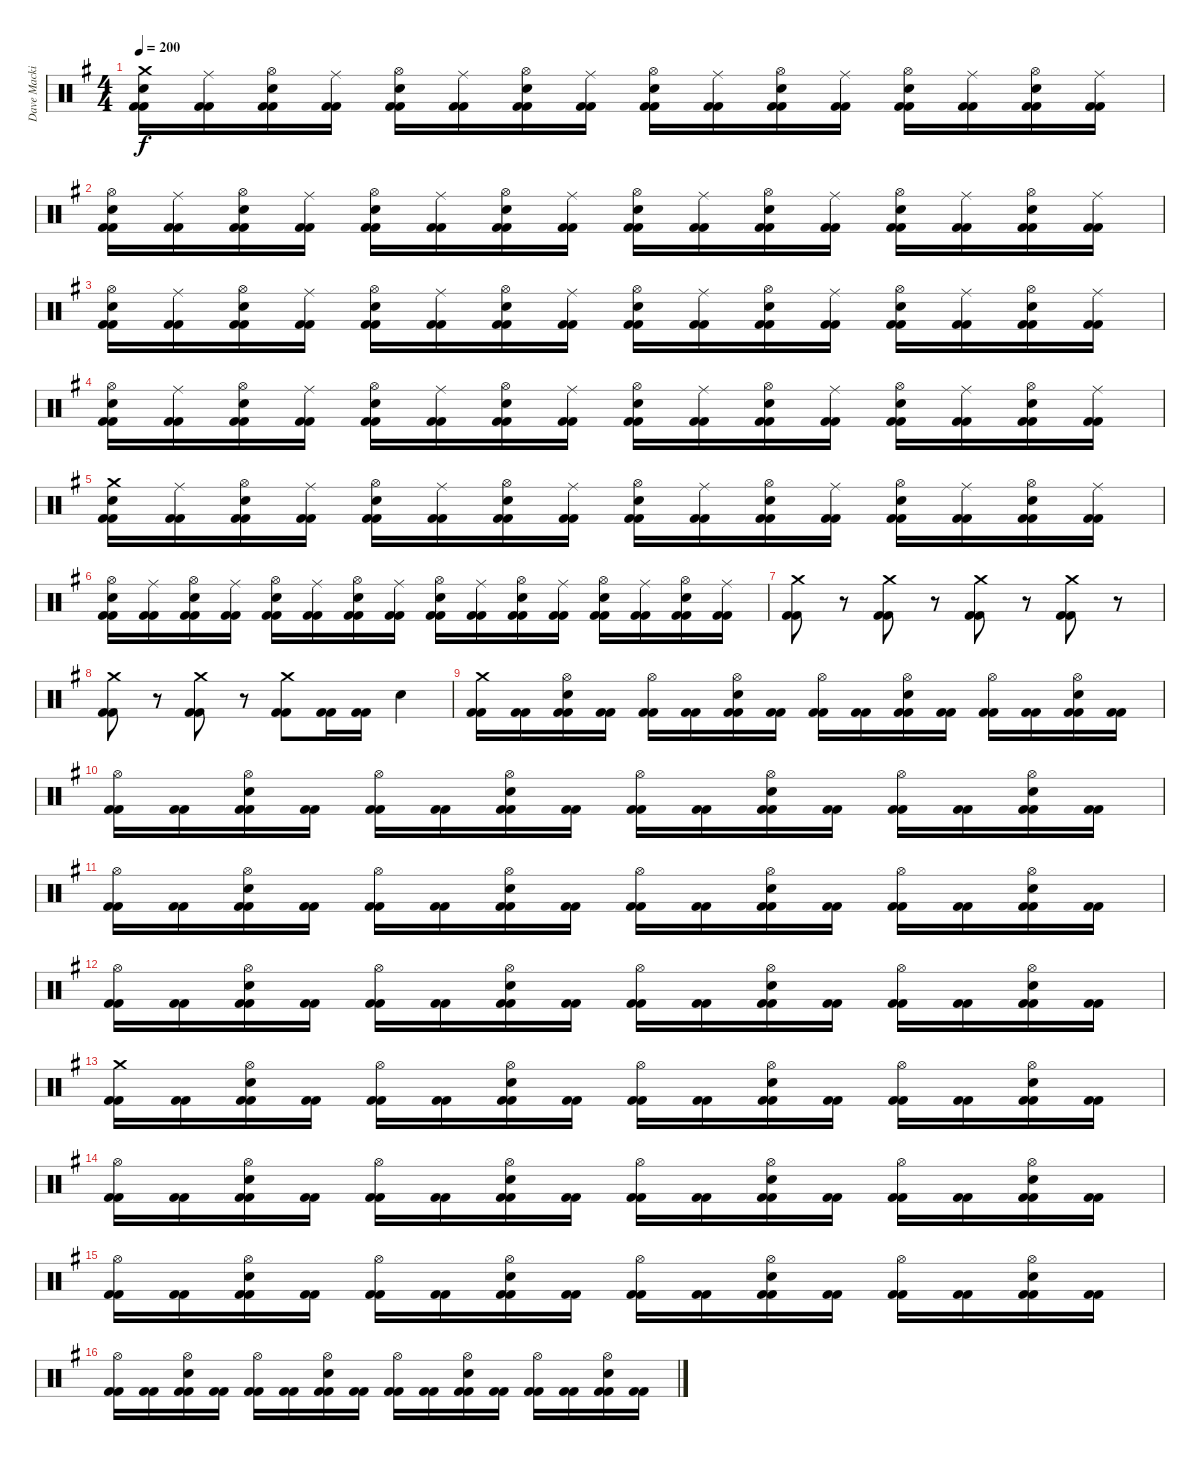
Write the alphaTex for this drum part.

\track ("Dave Mackintosh" "Dave Macki") {instrument percussion}
\staff {score}
\articulation defaults
\ts (4 4)
\tempo 200
\clef neutral
\ks g
("Crash medium (hit)" "Electric Snare (hit)" "Kick (hit) 2" "Kick (hit) 2").16{dy f} ("Ride (middle)" "Kick (hit) 2" "Kick (hit) 2").16 ("Hi-Hat (open)" "Electric Snare (hit)" "Kick (hit) 2" "Kick (hit) 2").16 ("Ride (middle)" "Kick (hit) 2" "Kick (hit) 2").16 ("Hi-Hat (open)" "Electric Snare (hit)" "Kick (hit) 2" "Kick (hit) 2").16 ("Ride (middle)" "Kick (hit) 2" "Kick (hit) 2").16 ("Hi-Hat (open)" "Electric Snare (hit)" "Kick (hit) 2" "Kick (hit) 2").16 ("Ride (middle)" "Kick (hit) 2" "Kick (hit) 2").16 ("Hi-Hat (open)" "Electric Snare (hit)" "Kick (hit) 2" "Kick (hit) 2").16 ("Ride (middle)" "Kick (hit) 2" "Kick (hit) 2").16 ("Hi-Hat (open)" "Electric Snare (hit)" "Kick (hit) 2" "Kick (hit) 2").16 ("Ride (middle)" "Kick (hit) 2" "Kick (hit) 2").16 ("Hi-Hat (open)" "Electric Snare (hit)" "Kick (hit) 2" "Kick (hit) 2").16 ("Ride (middle)" "Kick (hit) 2" "Kick (hit) 2").16 ("Hi-Hat (open)" "Electric Snare (hit)" "Kick (hit) 2" "Kick (hit) 2").16 ("Ride (middle)" "Kick (hit) 2" "Kick (hit) 2").16 |
("Hi-Hat (open)" "Electric Snare (hit)" "Kick (hit) 2" "Kick (hit) 2").16 ("Ride (middle)" "Kick (hit) 2" "Kick (hit) 2").16 ("Hi-Hat (open)" "Electric Snare (hit)" "Kick (hit) 2" "Kick (hit) 2").16 ("Ride (middle)" "Kick (hit) 2" "Kick (hit) 2").16 ("Hi-Hat (open)" "Electric Snare (hit)" "Kick (hit) 2" "Kick (hit) 2").16 ("Ride (middle)" "Kick (hit) 2" "Kick (hit) 2").16 ("Hi-Hat (open)" "Electric Snare (hit)" "Kick (hit) 2" "Kick (hit) 2").16 ("Ride (middle)" "Kick (hit) 2" "Kick (hit) 2").16 ("Hi-Hat (open)" "Electric Snare (hit)" "Kick (hit) 2" "Kick (hit) 2").16 ("Ride (middle)" "Kick (hit) 2" "Kick (hit) 2").16 ("Hi-Hat (open)" "Electric Snare (hit)" "Kick (hit) 2" "Kick (hit) 2").16 ("Ride (middle)" "Kick (hit) 2" "Kick (hit) 2").16 ("Hi-Hat (open)" "Electric Snare (hit)" "Kick (hit) 2" "Kick (hit) 2").16 ("Ride (middle)" "Kick (hit) 2" "Kick (hit) 2").16 ("Hi-Hat (open)" "Electric Snare (hit)" "Kick (hit) 2" "Kick (hit) 2").16 ("Ride (middle)" "Kick (hit) 2" "Kick (hit) 2").16 |
("Hi-Hat (open)" "Electric Snare (hit)" "Kick (hit) 2" "Kick (hit) 2").16 ("Ride (middle)" "Kick (hit) 2" "Kick (hit) 2").16 ("Hi-Hat (open)" "Electric Snare (hit)" "Kick (hit) 2" "Kick (hit) 2").16 ("Ride (middle)" "Kick (hit) 2" "Kick (hit) 2").16 ("Hi-Hat (open)" "Electric Snare (hit)" "Kick (hit) 2" "Kick (hit) 2").16 ("Ride (middle)" "Kick (hit) 2" "Kick (hit) 2").16 ("Hi-Hat (open)" "Electric Snare (hit)" "Kick (hit) 2" "Kick (hit) 2").16 ("Ride (middle)" "Kick (hit) 2" "Kick (hit) 2").16 ("Hi-Hat (open)" "Electric Snare (hit)" "Kick (hit) 2" "Kick (hit) 2").16 ("Ride (middle)" "Kick (hit) 2" "Kick (hit) 2").16 ("Hi-Hat (open)" "Electric Snare (hit)" "Kick (hit) 2" "Kick (hit) 2").16 ("Ride (middle)" "Kick (hit) 2" "Kick (hit) 2").16 ("Hi-Hat (open)" "Electric Snare (hit)" "Kick (hit) 2" "Kick (hit) 2").16 ("Ride (middle)" "Kick (hit) 2" "Kick (hit) 2").16 ("Hi-Hat (open)" "Electric Snare (hit)" "Kick (hit) 2" "Kick (hit) 2").16 ("Ride (middle)" "Kick (hit) 2" "Kick (hit) 2").16 |
("Hi-Hat (open)" "Electric Snare (hit)" "Kick (hit) 2" "Kick (hit) 2").16 ("Ride (middle)" "Kick (hit) 2" "Kick (hit) 2").16 ("Hi-Hat (open)" "Electric Snare (hit)" "Kick (hit) 2" "Kick (hit) 2").16 ("Ride (middle)" "Kick (hit) 2" "Kick (hit) 2").16 ("Hi-Hat (open)" "Electric Snare (hit)" "Kick (hit) 2" "Kick (hit) 2").16 ("Ride (middle)" "Kick (hit) 2" "Kick (hit) 2").16 ("Hi-Hat (open)" "Electric Snare (hit)" "Kick (hit) 2" "Kick (hit) 2").16 ("Ride (middle)" "Kick (hit) 2" "Kick (hit) 2").16 ("Hi-Hat (open)" "Electric Snare (hit)" "Kick (hit) 2" "Kick (hit) 2").16 ("Ride (middle)" "Kick (hit) 2" "Kick (hit) 2").16 ("Hi-Hat (open)" "Electric Snare (hit)" "Kick (hit) 2" "Kick (hit) 2").16 ("Ride (middle)" "Kick (hit) 2" "Kick (hit) 2").16 ("Hi-Hat (open)" "Electric Snare (hit)" "Kick (hit) 2" "Kick (hit) 2").16 ("Ride (middle)" "Kick (hit) 2" "Kick (hit) 2").16 ("Hi-Hat (open)" "Electric Snare (hit)" "Kick (hit) 2" "Kick (hit) 2").16 ("Ride (middle)" "Kick (hit) 2" "Kick (hit) 2").16 |
("Crash medium (hit)" "Electric Snare (hit)" "Kick (hit) 2" "Kick (hit) 2").16 ("Ride (middle)" "Kick (hit) 2" "Kick (hit) 2").16 ("Hi-Hat (open)" "Electric Snare (hit)" "Kick (hit) 2" "Kick (hit) 2").16 ("Ride (middle)" "Kick (hit) 2" "Kick (hit) 2").16 ("Hi-Hat (open)" "Electric Snare (hit)" "Kick (hit) 2" "Kick (hit) 2").16 ("Ride (middle)" "Kick (hit) 2" "Kick (hit) 2").16 ("Hi-Hat (open)" "Electric Snare (hit)" "Kick (hit) 2" "Kick (hit) 2").16 ("Ride (middle)" "Kick (hit) 2" "Kick (hit) 2").16 ("Hi-Hat (open)" "Electric Snare (hit)" "Kick (hit) 2" "Kick (hit) 2").16 ("Ride (middle)" "Kick (hit) 2" "Kick (hit) 2").16 ("Hi-Hat (open)" "Electric Snare (hit)" "Kick (hit) 2" "Kick (hit) 2").16 ("Ride (middle)" "Kick (hit) 2" "Kick (hit) 2").16 ("Hi-Hat (open)" "Electric Snare (hit)" "Kick (hit) 2" "Kick (hit) 2").16 ("Ride (middle)" "Kick (hit) 2" "Kick (hit) 2").16 ("Hi-Hat (open)" "Electric Snare (hit)" "Kick (hit) 2" "Kick (hit) 2").16 ("Ride (middle)" "Kick (hit) 2" "Kick (hit) 2").16 |
("Hi-Hat (open)" "Electric Snare (hit)" "Kick (hit) 2" "Kick (hit) 2").16 ("Ride (middle)" "Kick (hit) 2" "Kick (hit) 2").16 ("Hi-Hat (open)" "Electric Snare (hit)" "Kick (hit) 2" "Kick (hit) 2").16 ("Ride (middle)" "Kick (hit) 2" "Kick (hit) 2").16 ("Hi-Hat (open)" "Electric Snare (hit)" "Kick (hit) 2" "Kick (hit) 2").16 ("Ride (middle)" "Kick (hit) 2" "Kick (hit) 2").16 ("Hi-Hat (open)" "Electric Snare (hit)" "Kick (hit) 2" "Kick (hit) 2").16 ("Ride (middle)" "Kick (hit) 2" "Kick (hit) 2").16 ("Hi-Hat (open)" "Electric Snare (hit)" "Kick (hit) 2" "Kick (hit) 2").16 ("Ride (middle)" "Kick (hit) 2" "Kick (hit) 2").16 ("Hi-Hat (open)" "Electric Snare (hit)" "Kick (hit) 2" "Kick (hit) 2").16 ("Ride (middle)" "Kick (hit) 2" "Kick (hit) 2").16 ("Hi-Hat (open)" "Electric Snare (hit)" "Kick (hit) 2" "Kick (hit) 2").16 ("Ride (middle)" "Kick (hit) 2" "Kick (hit) 2").16 ("Hi-Hat (open)" "Electric Snare (hit)" "Kick (hit) 2" "Kick (hit) 2").16 ("Ride (middle)" "Kick (hit) 2" "Kick (hit) 2").16 |
("Crash medium (hit)" "Kick (hit) 2" "Kick (hit) 2").8 r.8 ("Crash medium (hit)" "Kick (hit) 2" "Kick (hit) 2").8 r.8 ("Crash medium (hit)" "Kick (hit) 2" "Kick (hit) 2").8 r.8 ("Crash medium (hit)" "Kick (hit) 2" "Kick (hit) 2").8 r.8 |
("Crash medium (hit)" "Kick (hit) 2" "Kick (hit) 2").8 r.8 ("Crash medium (hit)" "Kick (hit) 2" "Kick (hit) 2").8 r.8 ("Crash medium (hit)" "Kick (hit) 2" "Kick (hit) 2").8 ("Kick (hit) 2" "Kick (hit) 2").16 ("Kick (hit) 2" "Kick (hit) 2").16 "Electric Snare (hit)".4 |
("Crash medium (hit)" "Kick (hit) 2" "Kick (hit) 2").16 ("Kick (hit) 2" "Kick (hit) 2").16 ("Hi-Hat (open)" "Electric Snare (hit)" "Kick (hit) 2" "Kick (hit) 2").16 ("Kick (hit) 2" "Kick (hit) 2").16 ("Hi-Hat (open)" "Kick (hit) 2" "Kick (hit) 2").16 ("Kick (hit) 2" "Kick (hit) 2").16 ("Hi-Hat (open)" "Electric Snare (hit)" "Kick (hit) 2" "Kick (hit) 2").16 ("Kick (hit) 2" "Kick (hit) 2").16 ("Hi-Hat (open)" "Kick (hit) 2" "Kick (hit) 2").16 ("Kick (hit) 2" "Kick (hit) 2").16 ("Hi-Hat (open)" "Electric Snare (hit)" "Kick (hit) 2" "Kick (hit) 2").16 ("Kick (hit) 2" "Kick (hit) 2").16 ("Hi-Hat (open)" "Kick (hit) 2" "Kick (hit) 2").16 ("Kick (hit) 2" "Kick (hit) 2").16 ("Hi-Hat (open)" "Electric Snare (hit)" "Kick (hit) 2" "Kick (hit) 2").16 ("Kick (hit) 2" "Kick (hit) 2").16 |
("Hi-Hat (open)" "Kick (hit) 2" "Kick (hit) 2").16 ("Kick (hit) 2" "Kick (hit) 2").16 ("Hi-Hat (open)" "Electric Snare (hit)" "Kick (hit) 2" "Kick (hit) 2").16 ("Kick (hit) 2" "Kick (hit) 2").16 ("Hi-Hat (open)" "Kick (hit) 2" "Kick (hit) 2").16 ("Kick (hit) 2" "Kick (hit) 2").16 ("Hi-Hat (open)" "Electric Snare (hit)" "Kick (hit) 2" "Kick (hit) 2").16 ("Kick (hit) 2" "Kick (hit) 2").16 ("Hi-Hat (open)" "Kick (hit) 2" "Kick (hit) 2").16 ("Kick (hit) 2" "Kick (hit) 2").16 ("Hi-Hat (open)" "Electric Snare (hit)" "Kick (hit) 2" "Kick (hit) 2").16 ("Kick (hit) 2" "Kick (hit) 2").16 ("Hi-Hat (open)" "Kick (hit) 2" "Kick (hit) 2").16 ("Kick (hit) 2" "Kick (hit) 2").16 ("Hi-Hat (open)" "Electric Snare (hit)" "Kick (hit) 2" "Kick (hit) 2").16 ("Kick (hit) 2" "Kick (hit) 2").16 |
("Hi-Hat (open)" "Kick (hit) 2" "Kick (hit) 2").16 ("Kick (hit) 2" "Kick (hit) 2").16 ("Hi-Hat (open)" "Electric Snare (hit)" "Kick (hit) 2" "Kick (hit) 2").16 ("Kick (hit) 2" "Kick (hit) 2").16 ("Hi-Hat (open)" "Kick (hit) 2" "Kick (hit) 2").16 ("Kick (hit) 2" "Kick (hit) 2").16 ("Hi-Hat (open)" "Electric Snare (hit)" "Kick (hit) 2" "Kick (hit) 2").16 ("Kick (hit) 2" "Kick (hit) 2").16 ("Hi-Hat (open)" "Kick (hit) 2" "Kick (hit) 2").16 ("Kick (hit) 2" "Kick (hit) 2").16 ("Hi-Hat (open)" "Electric Snare (hit)" "Kick (hit) 2" "Kick (hit) 2").16 ("Kick (hit) 2" "Kick (hit) 2").16 ("Hi-Hat (open)" "Kick (hit) 2" "Kick (hit) 2").16 ("Kick (hit) 2" "Kick (hit) 2").16 ("Hi-Hat (open)" "Electric Snare (hit)" "Kick (hit) 2" "Kick (hit) 2").16 ("Kick (hit) 2" "Kick (hit) 2").16 |
("Hi-Hat (open)" "Kick (hit) 2" "Kick (hit) 2").16 ("Kick (hit) 2" "Kick (hit) 2").16 ("Hi-Hat (open)" "Electric Snare (hit)" "Kick (hit) 2" "Kick (hit) 2").16 ("Kick (hit) 2" "Kick (hit) 2").16 ("Hi-Hat (open)" "Kick (hit) 2" "Kick (hit) 2").16 ("Kick (hit) 2" "Kick (hit) 2").16 ("Hi-Hat (open)" "Electric Snare (hit)" "Kick (hit) 2" "Kick (hit) 2").16 ("Kick (hit) 2" "Kick (hit) 2").16 ("Hi-Hat (open)" "Kick (hit) 2" "Kick (hit) 2").16 ("Kick (hit) 2" "Kick (hit) 2").16 ("Hi-Hat (open)" "Electric Snare (hit)" "Kick (hit) 2" "Kick (hit) 2").16 ("Kick (hit) 2" "Kick (hit) 2").16 ("Hi-Hat (open)" "Kick (hit) 2" "Kick (hit) 2").16 ("Kick (hit) 2" "Kick (hit) 2").16 ("Hi-Hat (open)" "Electric Snare (hit)" "Kick (hit) 2" "Kick (hit) 2").16 ("Kick (hit) 2" "Kick (hit) 2").16 |
("Crash medium (hit)" "Kick (hit) 2" "Kick (hit) 2").16 ("Kick (hit) 2" "Kick (hit) 2").16 ("Hi-Hat (open)" "Electric Snare (hit)" "Kick (hit) 2" "Kick (hit) 2").16 ("Kick (hit) 2" "Kick (hit) 2").16 ("Hi-Hat (open)" "Kick (hit) 2" "Kick (hit) 2").16 ("Kick (hit) 2" "Kick (hit) 2").16 ("Hi-Hat (open)" "Electric Snare (hit)" "Kick (hit) 2" "Kick (hit) 2").16 ("Kick (hit) 2" "Kick (hit) 2").16 ("Hi-Hat (open)" "Kick (hit) 2" "Kick (hit) 2").16 ("Kick (hit) 2" "Kick (hit) 2").16 ("Hi-Hat (open)" "Electric Snare (hit)" "Kick (hit) 2" "Kick (hit) 2").16 ("Kick (hit) 2" "Kick (hit) 2").16 ("Hi-Hat (open)" "Kick (hit) 2" "Kick (hit) 2").16 ("Kick (hit) 2" "Kick (hit) 2").16 ("Hi-Hat (open)" "Electric Snare (hit)" "Kick (hit) 2" "Kick (hit) 2").16 ("Kick (hit) 2" "Kick (hit) 2").16 |
("Hi-Hat (open)" "Kick (hit) 2" "Kick (hit) 2").16 ("Kick (hit) 2" "Kick (hit) 2").16 ("Hi-Hat (open)" "Electric Snare (hit)" "Kick (hit) 2" "Kick (hit) 2").16 ("Kick (hit) 2" "Kick (hit) 2").16 ("Hi-Hat (open)" "Kick (hit) 2" "Kick (hit) 2").16 ("Kick (hit) 2" "Kick (hit) 2").16 ("Hi-Hat (open)" "Electric Snare (hit)" "Kick (hit) 2" "Kick (hit) 2").16 ("Kick (hit) 2" "Kick (hit) 2").16 ("Hi-Hat (open)" "Kick (hit) 2" "Kick (hit) 2").16 ("Kick (hit) 2" "Kick (hit) 2").16 ("Hi-Hat (open)" "Electric Snare (hit)" "Kick (hit) 2" "Kick (hit) 2").16 ("Kick (hit) 2" "Kick (hit) 2").16 ("Hi-Hat (open)" "Kick (hit) 2" "Kick (hit) 2").16 ("Kick (hit) 2" "Kick (hit) 2").16 ("Hi-Hat (open)" "Electric Snare (hit)" "Kick (hit) 2" "Kick (hit) 2").16 ("Kick (hit) 2" "Kick (hit) 2").16 |
("Hi-Hat (open)" "Kick (hit) 2" "Kick (hit) 2").16 ("Kick (hit) 2" "Kick (hit) 2").16 ("Hi-Hat (open)" "Electric Snare (hit)" "Kick (hit) 2" "Kick (hit) 2").16 ("Kick (hit) 2" "Kick (hit) 2").16 ("Hi-Hat (open)" "Kick (hit) 2" "Kick (hit) 2").16 ("Kick (hit) 2" "Kick (hit) 2").16 ("Hi-Hat (open)" "Electric Snare (hit)" "Kick (hit) 2" "Kick (hit) 2").16 ("Kick (hit) 2" "Kick (hit) 2").16 ("Hi-Hat (open)" "Kick (hit) 2" "Kick (hit) 2").16 ("Kick (hit) 2" "Kick (hit) 2").16 ("Hi-Hat (open)" "Electric Snare (hit)" "Kick (hit) 2" "Kick (hit) 2").16 ("Kick (hit) 2" "Kick (hit) 2").16 ("Hi-Hat (open)" "Kick (hit) 2" "Kick (hit) 2").16 ("Kick (hit) 2" "Kick (hit) 2").16 ("Hi-Hat (open)" "Electric Snare (hit)" "Kick (hit) 2" "Kick (hit) 2").16 ("Kick (hit) 2" "Kick (hit) 2").16 |
("Hi-Hat (open)" "Kick (hit) 2" "Kick (hit) 2").16 ("Kick (hit) 2" "Kick (hit) 2").16 ("Hi-Hat (open)" "Electric Snare (hit)" "Kick (hit) 2" "Kick (hit) 2").16 ("Kick (hit) 2" "Kick (hit) 2").16 ("Hi-Hat (open)" "Kick (hit) 2" "Kick (hit) 2").16 ("Kick (hit) 2" "Kick (hit) 2").16 ("Hi-Hat (open)" "Electric Snare (hit)" "Kick (hit) 2" "Kick (hit) 2").16 ("Kick (hit) 2" "Kick (hit) 2").16 ("Hi-Hat (open)" "Kick (hit) 2" "Kick (hit) 2").16 ("Kick (hit) 2" "Kick (hit) 2").16 ("Hi-Hat (open)" "Electric Snare (hit)" "Kick (hit) 2" "Kick (hit) 2").16 ("Kick (hit) 2" "Kick (hit) 2").16 ("Hi-Hat (open)" "Kick (hit) 2" "Kick (hit) 2").16 ("Kick (hit) 2" "Kick (hit) 2").16 ("Hi-Hat (open)" "Electric Snare (hit)" "Kick (hit) 2" "Kick (hit) 2").16 ("Kick (hit) 2" "Kick (hit) 2").16
